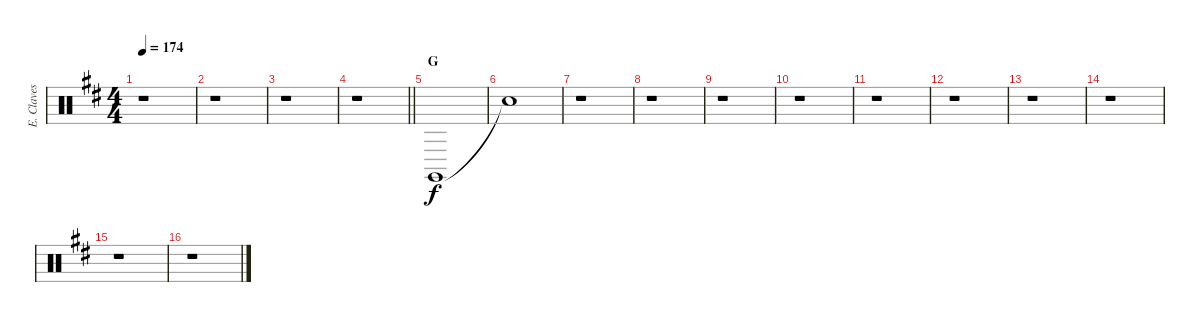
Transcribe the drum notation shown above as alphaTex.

\track ("E. Claves" "E. Claves") {instrument percussion}
\staff {score}
\articulation defaults
\ts (4 4)
\tempo 174
\clef neutral
\ks bminor
r.1{dy f} |
r.1 |
r.1 |
\barLineRight lightlight
r.1 |
\section ("" "G")
"Claves (hit)".1 |
"Snare (hit)"{t}.1 |
r.1 |
r.1 |
r.1 |
r.1 |
r.1 |
r.1 |
r.1 |
r.1 |
r.1 |
r.1
